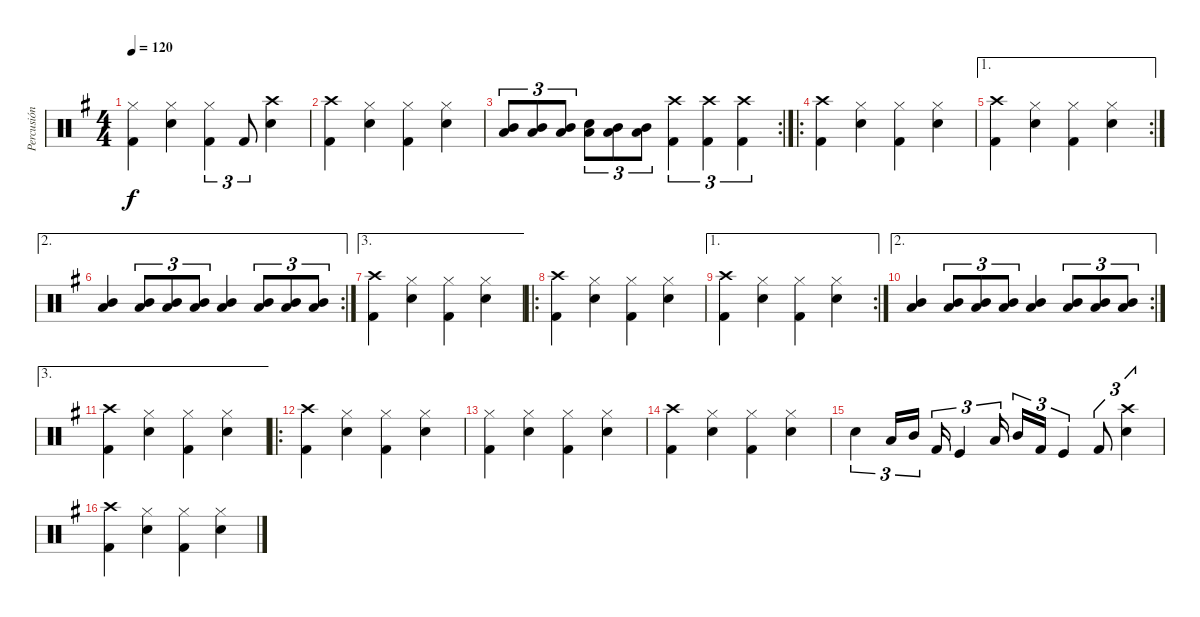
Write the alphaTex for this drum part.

\track ("Percusión" "Percusión") {instrument percussion}
\staff {score}
\articulation defaults
\ts (4 4)
\tempo 120
\clef neutral
\ks g
("Hi-Hat (closed)" "Kick (hit) 2").4{dy f} ("Hi-Hat (closed)" "Snare (hit) 2").4 ("Hi-Hat (closed)" "Kick (hit) 2").4{tu (3 2)} "Kick (hit) 2".8{tu (3 2)} ("Crash high (hit)" "Snare (hit) 2").4 |
("Crash high (hit)" "Kick (hit) 2").4 ("Hi-Hat (closed)" "Snare (hit) 2").4 ("Hi-Hat (closed)" "Kick (hit) 2").4 ("Hi-Hat (closed)" "Snare (hit) 2").4 |
\rc 2
("Low Tom (hit)" "Mid Tom (hit)").8{tu (3 2)} ("Low Tom (hit)" "Mid Tom (hit)").8{tu (3 2)} ("Low Tom (hit)" "Mid Tom (hit)").8{tu (3 2)} ("Low Tom (hit)" "Snare (hit) 2").8{tu (3 2)} ("Low Tom (hit)" "Mid Tom (hit)").8{tu (3 2)} ("Low Tom (hit)" "Mid Tom (hit)").8{tu (3 2)} ("Crash high (hit)" "Kick (hit) 2").4{tu (3 2)} ("Crash high (hit)" "Kick (hit) 2").4{tu (3 2)} ("Crash high (hit)" "Kick (hit) 2").4{tu (3 2)} |
\ro
("Crash high (hit)" "Kick (hit) 2").4 ("Hi-Hat (closed)" "Snare (hit) 2").4 ("Hi-Hat (closed)" "Kick (hit) 2").4 ("Hi-Hat (closed)" "Snare (hit) 2").4 |
\ae 1
\rc 2
("Crash high (hit)" "Kick (hit) 2").4 ("Hi-Hat (closed)" "Snare (hit) 2").4 ("Hi-Hat (closed)" "Kick (hit) 2").4 ("Hi-Hat (closed)" "Snare (hit) 2").4 |
\ae 2
\rc 2
("Mid Tom (hit)" "Low Tom (hit)").4 ("Mid Tom (hit)" "Low Tom (hit)").8{tu (3 2)} ("Mid Tom (hit)" "Low Tom (hit)").8{tu (3 2)} ("Mid Tom (hit)" "Low Tom (hit)").8{tu (3 2)} ("Mid Tom (hit)" "Low Tom (hit)").4 ("Mid Tom (hit)" "Low Tom (hit)").8{tu (3 2)} ("Mid Tom (hit)" "Low Tom (hit)").8{tu (3 2)} ("Mid Tom (hit)" "Low Tom (hit)").8{tu (3 2)} |
\ae 3
("Crash high (hit)" "Kick (hit) 2").4 ("Hi-Hat (closed)" "Snare (hit) 2").4 ("Hi-Hat (closed)" "Kick (hit) 2").4 ("Hi-Hat (closed)" "Snare (hit) 2").4 |
\ro
("Crash high (hit)" "Kick (hit) 2").4 ("Hi-Hat (closed)" "Snare (hit) 2").4 ("Hi-Hat (closed)" "Kick (hit) 2").4 ("Hi-Hat (closed)" "Snare (hit) 2").4 |
\ae 1
\rc 2
("Crash high (hit)" "Kick (hit) 2").4 ("Hi-Hat (closed)" "Snare (hit) 2").4 ("Hi-Hat (closed)" "Kick (hit) 2").4 ("Hi-Hat (closed)" "Snare (hit) 2").4 |
\ae 2
\rc 2
("Mid Tom (hit)" "Low Tom (hit)").4 ("Mid Tom (hit)" "Low Tom (hit)").8{tu (3 2)} ("Mid Tom (hit)" "Low Tom (hit)").8{tu (3 2)} ("Mid Tom (hit)" "Low Tom (hit)").8{tu (3 2)} ("Mid Tom (hit)" "Low Tom (hit)").4 ("Mid Tom (hit)" "Low Tom (hit)").8{tu (3 2)} ("Mid Tom (hit)" "Low Tom (hit)").8{tu (3 2)} ("Mid Tom (hit)" "Low Tom (hit)").8{tu (3 2)} |
\ae 3
("Crash high (hit)" "Kick (hit) 2").4 ("Hi-Hat (closed)" "Snare (hit) 2").4 ("Hi-Hat (closed)" "Kick (hit) 2").4 ("Hi-Hat (closed)" "Snare (hit) 2").4 |
\ro
("Crash high (hit)" "Kick (hit) 2").4 ("Hi-Hat (closed)" "Snare (hit) 2").4 ("Hi-Hat (closed)" "Kick (hit) 2").4 ("Hi-Hat (closed)" "Snare (hit) 2").4 |
("Hi-Hat (closed)" "Kick (hit) 2").4 ("Hi-Hat (closed)" "Snare (hit) 2").4 ("Hi-Hat (closed)" "Kick (hit) 2").4 ("Hi-Hat (closed)" "Snare (hit) 2").4 |
("Crash high (hit)" "Kick (hit) 2").4 ("Hi-Hat (closed)" "Snare (hit) 2").4 ("Hi-Hat (closed)" "Kick (hit) 2").4 ("Hi-Hat (closed)" "Snare (hit) 2").4 |
"Snare (hit) 2".4{tu (3 2)} "Low Tom (hit)".16{tu (3 2)} "Mid Tom (hit)".16{tu (3 2)} "Kick (hit) 2".16{tu (3 2)} "Kick (hit)".4{tu (3 2)} "Low Tom (hit)".16{tu (3 2)} "Mid Tom (hit)".16{tu (3 2)} "Kick (hit) 2".16{tu (3 2)} "Kick (hit)".4{tu (3 2)} "Kick (hit) 2".8{tu (3 2)} ("Crash high (hit)" "Snare (hit) 2").4{tu (3 2)} |
("Crash high (hit)" "Kick (hit) 2").4 ("Hi-Hat (closed)" "Snare (hit) 2").4 ("Hi-Hat (closed)" "Kick (hit) 2").4 ("Hi-Hat (closed)" "Snare (hit) 2").4
